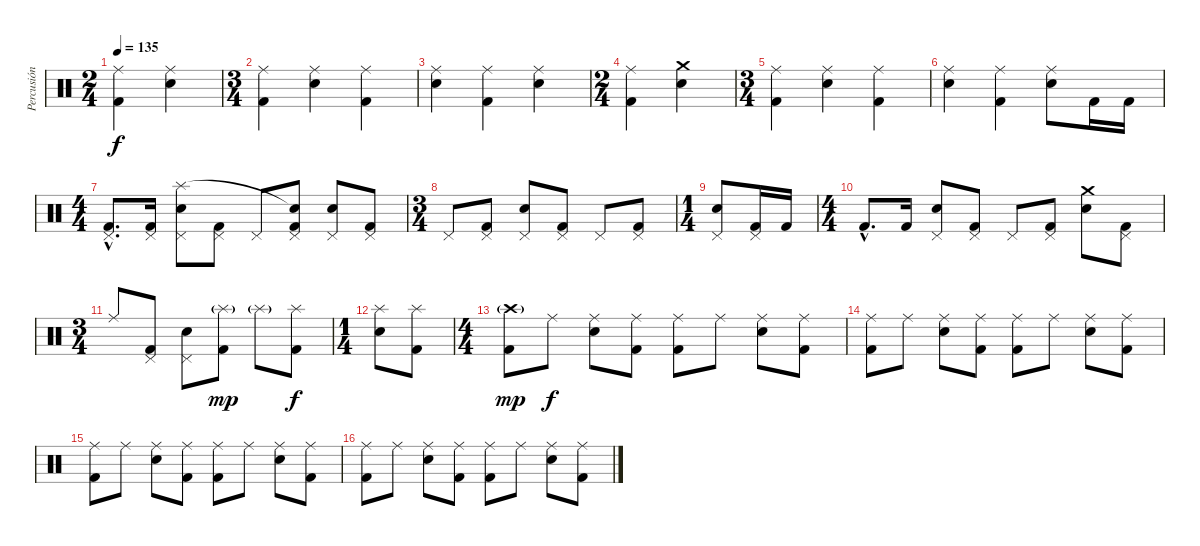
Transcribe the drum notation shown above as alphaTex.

\track ("Percusión" "Percusión") {instrument percussion}
\staff {score}
\articulation defaults
\ts (2 4)
\tempo 135
\clef neutral
\ks c
("Kick (hit) 2" "Ride (middle)").4{dy f} ("Snare (hit) 2" "Ride (middle)").4 |
\ts (3 4)
("Kick (hit) 2" "Ride (middle)").4 ("Snare (hit) 2" "Ride (middle)").4 ("Kick (hit) 2" "Ride (middle)").4 |
("Snare (hit) 2" "Ride (middle)").4 ("Kick (hit) 2" "Ride (middle)").4 ("Snare (hit) 2" "Ride (middle)").4 |
\ts (2 4)
("Kick (hit) 2" "Ride (middle)").4 ("Snare (hit) 2" "Crash medium (hit)").4 |
\ts (3 4)
("Kick (hit) 2" "Ride (middle)").4 ("Snare (hit) 2" "Ride (middle)").4 ("Kick (hit) 2" "Ride (middle)").4 |
("Snare (hit) 2" "Ride (middle)").4 ("Kick (hit) 2" "Ride (middle)").4 ("Snare (hit) 2" "Ride (middle)").8 "Kick (hit) 2".16 "Kick (hit) 2".16 |
\ts (4 4)
("Kick (hit) 2"{hac} "Pedal Hi-Hat (hit)"{hac}).8{d} ("Kick (hit) 2" "Pedal Hi-Hat (hit)").16 ("Snare (hit) 2" "Pedal Hi-Hat (hit)" "Splash (hit)").8 ("Kick (hit) 2" "Pedal Hi-Hat (hit)").8 "Pedal Hi-Hat (hit)".8 ("Kick (hit) 2" "Pedal Hi-Hat (hit)" "Snare (hit)"{t}).8 ("Snare (hit) 2" "Pedal Hi-Hat (hit)").8 ("Kick (hit) 2" "Pedal Hi-Hat (hit)").8 |
\ts (3 4)
"Pedal Hi-Hat (hit)".8 ("Kick (hit) 2" "Pedal Hi-Hat (hit)").8 ("Snare (hit) 2" "Pedal Hi-Hat (hit)").8 ("Kick (hit) 2" "Pedal Hi-Hat (hit)").8 "Pedal Hi-Hat (hit)".8 ("Kick (hit) 2" "Pedal Hi-Hat (hit)").8 |
\ts (1 4)
("Snare (hit) 2" "Pedal Hi-Hat (hit)").8 ("Kick (hit) 2" "Pedal Hi-Hat (hit)").16 "Kick (hit) 2".16 |
\ts (4 4)
"Kick (hit) 2"{hac}.8{d} "Kick (hit) 2".16 ("Snare (hit) 2" "Pedal Hi-Hat (hit)").8 ("Kick (hit) 2" "Pedal Hi-Hat (hit)").8 "Pedal Hi-Hat (hit)".8 ("Kick (hit) 2" "Pedal Hi-Hat (hit)").8 ("Snare (hit) 2" "Crash medium (hit)").8 ("Kick (hit) 2" "Pedal Hi-Hat (hit)").8 |
\ts (3 4)
"Ride (middle)".8 ("Kick (hit) 2" "Pedal Hi-Hat (hit)").8 ("Snare (hit) 2" "Pedal Hi-Hat (hit)").8 ("Kick (hit) 2" "Splash (hit)"{g}).8{dy mp} "Splash (hit)"{g}.8 ("Kick (hit) 2" "Splash (hit)").8{dy f} |
\ts (1 4)
("Snare (hit) 2" "Splash (hit)").8 ("Kick (hit) 2" "Splash (hit)").8 |
\ts (4 4)
("Kick (hit) 2" "Crash high (hit)"{g}).8{dy mp} "Ride (middle)".8{dy f} ("Snare (hit) 2" "Ride (middle)").8 ("Kick (hit) 2" "Ride (middle)").8 ("Kick (hit) 2" "Ride (middle)").8 "Ride (middle)".8 ("Snare (hit) 2" "Ride (middle)").8 ("Kick (hit) 2" "Ride (middle)").8 |
("Kick (hit) 2" "Ride (middle)").8 "Ride (middle)".8 ("Snare (hit) 2" "Ride (middle)").8 ("Kick (hit) 2" "Ride (middle)").8 ("Kick (hit) 2" "Ride (middle)").8 "Ride (middle)".8 ("Snare (hit) 2" "Ride (middle)").8 ("Kick (hit) 2" "Ride (middle)").8 |
("Kick (hit) 2" "Ride (middle)").8 "Ride (middle)".8 ("Snare (hit) 2" "Ride (middle)").8 ("Kick (hit) 2" "Ride (middle)").8 ("Kick (hit) 2" "Ride (middle)").8 "Ride (middle)".8 ("Snare (hit) 2" "Ride (middle)").8 ("Kick (hit) 2" "Ride (middle)").8 |
("Kick (hit) 2" "Ride (middle)").8 "Ride (middle)".8 ("Snare (hit) 2" "Ride (middle)").8 ("Kick (hit) 2" "Ride (middle)").8 ("Kick (hit) 2" "Ride (middle)").8 "Ride (middle)".8 ("Snare (hit) 2" "Ride (middle)").8 ("Kick (hit) 2" "Ride (middle)").8
